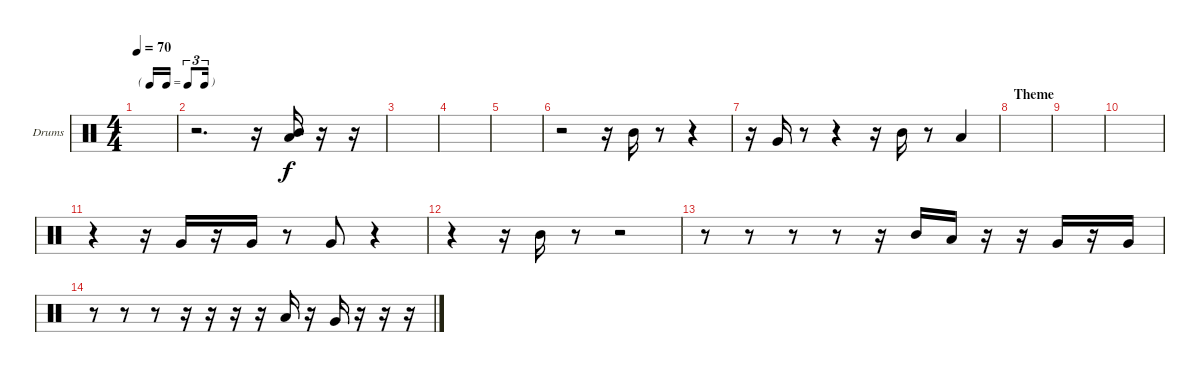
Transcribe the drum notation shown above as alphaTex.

\bracketExtendMode groupsimilarinstruments
\firstSystemTrackNameOrientation horizontal
\otherSystemsTrackNameOrientation horizontal
\track ("Tom" "Drums") {instrument percussion}
\staff {score}
\articulation defaults
\ts (4 4)
\tf triplet16th
\tempo 70
\clef neutral
\scale
0.333333
\ks aminor
|
\scale
0.333333 r.2{d} r.16 ("Low Tom (hit)" "Mid Tom (hit)").16 r.16 r.16 |
\scale
0.333333 |
\scale
0.333333 |
\scale
0.333333 |
\scale
0.333333 r.2 r.16 "Mid Tom (hit)".16 r.8 r.4 |
\scale
0.333333 r.16 "Very Low Tom (hit)".16 r.8 r.4 r.16 "Mid Tom (hit)".16 r.8 "Low Tom (hit)".4 |
\section ("" "Theme")
\scale
0.333333 |
\scale
0.333333 |
\scale
0.333333 |
\scale
0.333333 r.4 r.16 "Very Low Tom (hit)".16 r.16 "Very Low Tom (hit)".16 r.8 "Very Low Tom (hit)".8 r.4 |
\scale
0.333333 r.4 r.16 "Mid Tom (hit)".16 r.8 r.2 |
\scale
0.333333 r.8 r.8 r.8 r.8 r.16 "Mid Tom (hit)".16 "Low Tom (hit)".16 r.16 r.16 "Very Low Tom (hit)".16 r.16 "Very Low Tom (hit)".16 |
r.8 r.8 r.8 r.16 r.16 r.16 r.16 "Low Tom (hit)".16 r.16 "Very Low Tom (hit)".16 r.16 r.16 r.16
